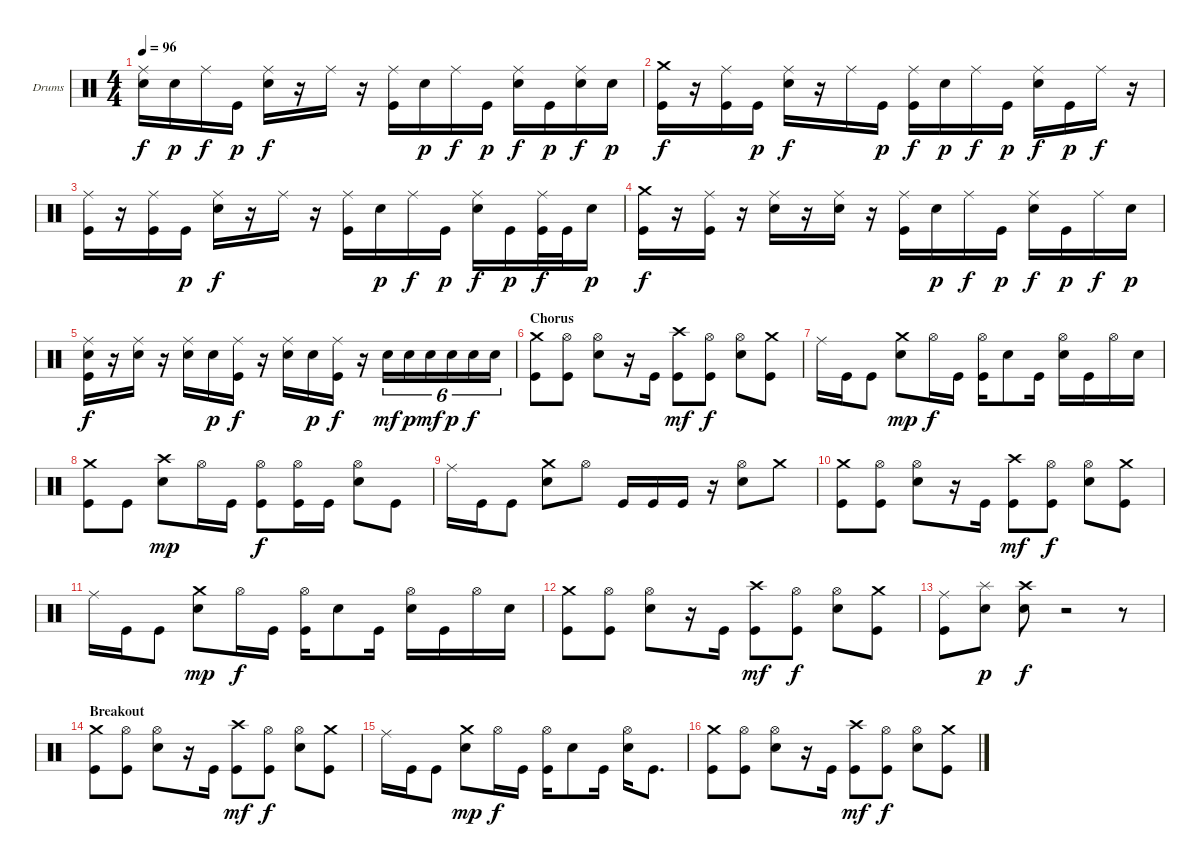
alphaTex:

\defaultSystemsLayout 4
\bracketExtendMode nobrackets
\firstSystemTrackNameOrientation horizontal
\otherSystemsTrackNameOrientation horizontal
\track ("Dave Abbruzzese" "Drums") {solo instrument percussion}
\staff {score}
\articulation defaults
\ts (4 4)
\tempo 96
\clef neutral
\ks c
("Ride (middle)" "Snare (hit) 2").16{dy f} "Snare (hit) 2".16{dy p} "Ride (middle)".16{dy f} "Kick (hit)".16{dy p} ("Ride (middle)" "Snare (hit) 2").16{dy f} r.16 "Ride (middle)".16 r.16 ("Ride (middle)" "Kick (hit)").16 "Snare (hit) 2".16{dy p} "Ride (middle)".16{dy f} "Kick (hit)".16{dy p} ("Ride (middle)" "Snare (hit) 2").16{dy f} "Kick (hit)".16{dy p} ("Ride (middle)" "Snare (hit) 2").16{dy f} "Snare (hit) 2".16{dy p} |
("Crash medium (hit)" "Kick (hit)").16{dy f} r.16 ("Ride (middle)" "Kick (hit)").16 "Kick (hit)".16{dy p} ("Ride (middle)" "Snare (hit) 2").16{dy f} r.16 "Ride (middle)".16 "Kick (hit)".16{dy p} ("Ride (middle)" "Kick (hit)").16{dy f} "Snare (hit) 2".16{dy p} "Ride (middle)".16{dy f} "Kick (hit)".16{dy p} ("Ride (middle)" "Snare (hit) 2").16{dy f} "Kick (hit)".16{dy p} "Ride (middle)".16{dy f} r.16 |
("Ride (middle)" "Kick (hit)").16 r.16 ("Ride (middle)" "Kick (hit)").16 "Kick (hit)".16{dy p} ("Ride (middle)" "Snare (hit) 2").16{dy f} r.16 "Ride (middle)".16 r.16 ("Ride (middle)" "Kick (hit)").16 "Snare (hit) 2".16{dy p} "Ride (middle)".16{dy f} "Kick (hit)".16{dy p} ("Ride (middle)" "Snare (hit) 2").16{dy f} "Kick (hit)".16{dy p} ("Ride (middle)" "Kick (hit)").32{dy f} "Kick (hit)".32 "Snare (hit) 2".16{dy p} |
("Crash medium (hit)" "Kick (hit)").16{dy f} r.16 ("Ride (middle)" "Kick (hit)").16 r.16 ("Ride (middle)" "Snare (hit) 2").16 r.16 ("Ride (middle)" "Snare (hit) 2").16 r.16 ("Ride (middle)" "Kick (hit)").16 "Snare (hit) 2".16{dy p} "Ride (middle)".16{dy f} "Kick (hit)".16{dy p} ("Ride (middle)" "Snare (hit) 2").16{dy f} "Kick (hit)".16{dy p} "Ride (middle)".16{dy f} "Snare (hit) 2".16{dy p} |
("Ride (middle)" "Snare (hit) 2" "Kick (hit)").16{dy f} r.16 ("Ride (middle)" "Snare (hit) 2").16 r.16 ("Ride (middle)" "Snare (hit) 2").16 "Snare (hit) 2".16{dy p} ("Ride (middle)" "Kick (hit)").16{dy f} r.16 ("Ride (middle)" "Snare (hit) 2").16 "Snare (hit) 2".16{dy p} ("Ride (middle)" "Kick (hit)").16{dy f} r.16 "Snare (hit) 2".16{tu (6 4) dy mf} "Snare (hit) 2".16{tu (6 4) dy p} "Snare (hit) 2".16{tu (6 4) dy mf} "Snare (hit) 2".16{tu (6 4) dy p} "Snare (hit) 2".16{tu (6 4) dy f} "Snare (hit) 2".16{tu (6 4)} |
\section ("" "Chorus")
("Crash medium (hit)" "Kick (hit)").8 ("Hi-Hat (open)" "Kick (hit)").8 ("Hi-Hat (open)" "Snare (hit) 2").8 r.16 "Kick (hit)".16 ("Crash high (hit)" "Kick (hit)").8{dy mf} ("Hi-Hat (open)" "Kick (hit)").8{dy f} ("Hi-Hat (open)" "Snare (hit) 2").8 ("Crash medium (hit)" "Kick (hit)").8 |
"Ride (middle)".16 "Kick (hit)".16 "Kick (hit)".8 ("Crash medium (hit)" "Snare (hit) 2").8{dy mp} "Hi-Hat (open)".16{dy f} "Kick (hit)".16 ("Hi-Hat (open)" "Kick (hit)").16 "Snare (hit) 2".8 "Kick (hit)".16 ("Hi-Hat (open)" "Snare (hit) 2").16 "Kick (hit)".16 "Hi-Hat (open)".16 "Snare (hit) 2".16 |
("Crash medium (hit)" "Kick (hit)").8 "Kick (hit)".8 ("Crash high (hit)" "Snare (hit) 2").8{dy mp} "Hi-Hat (open)".16 "Kick (hit)".16 ("Hi-Hat (open)" "Kick (hit)").8{dy f} ("Hi-Hat (open)" "Kick (hit)").16 "Kick (hit)".16 ("Hi-Hat (open)" "Snare (hit) 2").8 "Kick (hit)".8 |
"Ride (middle)".16 "Kick (hit)".16 "Kick (hit)".8 ("Crash medium (hit)" "Snare (hit) 2").8 "Hi-Hat (open)".8 "Kick (hit)".16 "Kick (hit)".16 "Kick (hit)".16 r.16 ("Hi-Hat (open)" "Snare (hit) 2").8 "Crash medium (hit)".8 |
("Crash medium (hit)" "Kick (hit)").8 ("Hi-Hat (open)" "Kick (hit)").8 ("Hi-Hat (open)" "Snare (hit) 2").8 r.16 "Kick (hit)".16 ("Crash high (hit)" "Kick (hit)").8{dy mf} ("Hi-Hat (open)" "Kick (hit)").8{dy f} ("Hi-Hat (open)" "Snare (hit) 2").8 ("Crash medium (hit)" "Kick (hit)").8 |
"Ride (middle)".16 "Kick (hit)".16 "Kick (hit)".8 ("Crash medium (hit)" "Snare (hit) 2").8{dy mp} "Hi-Hat (open)".16{dy f} "Kick (hit)".16 ("Hi-Hat (open)" "Kick (hit)").16 "Snare (hit) 2".8 "Kick (hit)".16 ("Hi-Hat (open)" "Snare (hit) 2").16 "Kick (hit)".16 "Hi-Hat (open)".16 "Snare (hit) 2".16 |
("Crash medium (hit)" "Kick (hit)").8 ("Hi-Hat (open)" "Kick (hit)").8 ("Hi-Hat (open)" "Snare (hit) 2").8 r.16 "Kick (hit)".16 ("Crash high (hit)" "Kick (hit)").8{dy mf} ("Hi-Hat (open)" "Kick (hit)").8{dy f} ("Hi-Hat (open)" "Snare (hit) 2").8 ("Crash medium (hit)" "Kick (hit)").8 |
("Ride (middle)" "Kick (hit)").8 ("Splash (hit)" "Snare (hit) 2").8{dy p} ("Crash high (hit)" "Snare (hit) 2").8{dy f} r.2 r.8 |
\section ("" "Breakout")
("Crash medium (hit)" "Kick (hit)").8 ("Hi-Hat (open)" "Kick (hit)").8 ("Hi-Hat (open)" "Snare (hit) 2").8 r.16 "Kick (hit)".16 ("Crash high (hit)" "Kick (hit)").8{dy mf} ("Hi-Hat (open)" "Kick (hit)").8{dy f} ("Hi-Hat (open)" "Snare (hit) 2").8 ("Crash medium (hit)" "Kick (hit)").8 |
"Ride (middle)".16 "Kick (hit)".16 "Kick (hit)".8 ("Crash medium (hit)" "Snare (hit) 2").8{dy mp} "Hi-Hat (open)".16{dy f} "Kick (hit)".16 ("Hi-Hat (open)" "Kick (hit)").16 "Snare (hit) 2".8 "Kick (hit)".16 ("Hi-Hat (open)" "Snare (hit) 2").16 "Kick (hit)".8{d} |
("Crash medium (hit)" "Kick (hit)").8 ("Hi-Hat (open)" "Kick (hit)").8 ("Hi-Hat (open)" "Snare (hit) 2").8 r.16 "Kick (hit)".16 ("Crash high (hit)" "Kick (hit)").8{dy mf} ("Hi-Hat (open)" "Kick (hit)").8{dy f} ("Hi-Hat (open)" "Snare (hit) 2").8 ("Crash medium (hit)" "Kick (hit)").8
